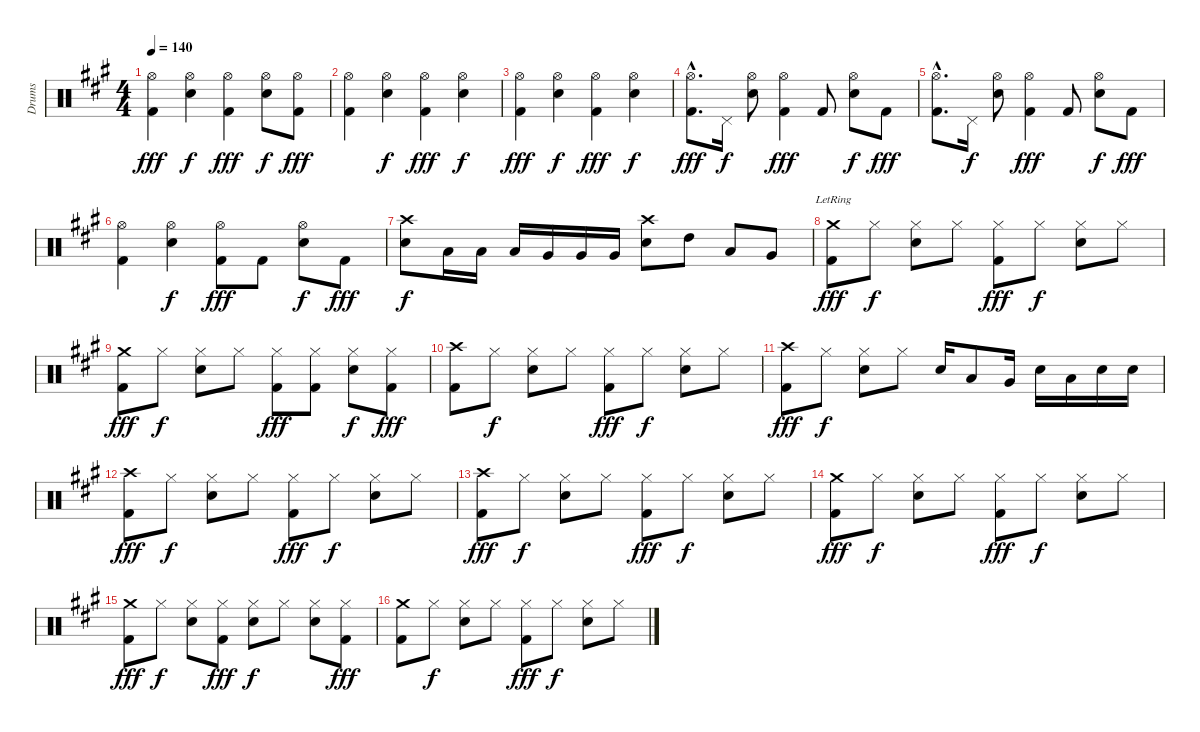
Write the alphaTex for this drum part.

\track ("Drums" "Drums") {instrument percussion}
\staff {score}
\articulation defaults
\ts (4 4)
\tempo 140
\clef neutral
\ks a
("Hi-Hat (open)" "Kick (hit) 2").4{dy fff} ("Hi-Hat (open)" "Electric Snare (hit)").4{dy f} ("Hi-Hat (open)" "Kick (hit) 2").4{dy fff} ("Hi-Hat (open)" "Electric Snare (hit)").8{dy f} ("Hi-Hat (open)" "Kick (hit) 2").8{dy fff} |
("Hi-Hat (open)" "Kick (hit) 2").4 ("Hi-Hat (open)" "Electric Snare (hit)").4{dy f} ("Hi-Hat (open)" "Kick (hit) 2").4{dy fff} ("Hi-Hat (open)" "Electric Snare (hit)").4{dy f} |
("Hi-Hat (open)" "Kick (hit) 2").4{dy fff} ("Hi-Hat (open)" "Electric Snare (hit)").4{dy f} ("Hi-Hat (open)" "Kick (hit) 2").4{dy fff} ("Hi-Hat (open)" "Electric Snare (hit)").4{dy f} |
("Hi-Hat (open)"{hac} "Kick (hit) 2"{hac}).8{d dy fff} "Pedal Hi-Hat (hit)".16{dy f} ("Hi-Hat (open)" "Electric Snare (hit)").8 ("Hi-Hat (open)" "Kick (hit) 2").4{dy fff} "Kick (hit) 2".8 ("Hi-Hat (open)" "Electric Snare (hit)").8{dy f} "Kick (hit) 2".8{dy fff} |
("Hi-Hat (open)"{hac} "Kick (hit) 2"{hac}).8{d} "Pedal Hi-Hat (hit)".16{dy f} ("Hi-Hat (open)" "Electric Snare (hit)").8 ("Hi-Hat (open)" "Kick (hit) 2").4{dy fff} "Kick (hit) 2".8 ("Hi-Hat (open)" "Electric Snare (hit)").8{dy f} "Kick (hit) 2".8{dy fff} |
("Hi-Hat (open)" "Kick (hit) 2").4 ("Hi-Hat (open)" "Electric Snare (hit)").4{dy f} ("Hi-Hat (open)" "Kick (hit) 2").8{dy fff} "Kick (hit) 2".8 ("Hi-Hat (open)" "Electric Snare (hit)").8{dy f} "Kick (hit) 2".8{dy fff} |
("Crash high (hit)" "Electric Snare (hit)").8{dy f} "Low Tom (hit)".16 "Low Tom (hit)".16 "Low Tom (hit)".16 "Very Low Tom (hit)".16 "Very Low Tom (hit)".16 "Very Low Tom (hit)".16 ("Crash high (hit)" "Electric Snare (hit)").8 "High Tom (hit)".8 "Low Tom (hit)".8 "Very Low Tom (hit)".8 |
("Crash medium (hit)"{lr} "Kick (hit) 2").8{dy fff} "Hi-Hat (closed)".8{dy f} ("Hi-Hat (closed)" "Electric Snare (hit)").8 "Hi-Hat (closed)".8 ("Hi-Hat (closed)" "Kick (hit) 2").8{dy fff} "Hi-Hat (closed)".8{dy f} ("Hi-Hat (closed)" "Electric Snare (hit)").8 "Hi-Hat (closed)".8 |
("Crash medium (hit)" "Kick (hit) 2").8{dy fff} "Hi-Hat (closed)".8{dy f} ("Hi-Hat (closed)" "Electric Snare (hit)").8 "Hi-Hat (closed)".8 ("Hi-Hat (closed)" "Kick (hit) 2").8{dy fff} ("Hi-Hat (closed)" "Kick (hit) 2").8 ("Hi-Hat (closed)" "Electric Snare (hit)").8{dy f} ("Hi-Hat (closed)" "Kick (hit) 2").8{dy fff} |
("Crash high (hit)" "Kick (hit) 2").8 "Hi-Hat (closed)".8{dy f} ("Hi-Hat (closed)" "Electric Snare (hit)").8 "Hi-Hat (closed)".8 ("Hi-Hat (closed)" "Kick (hit) 2").8{dy fff} "Hi-Hat (closed)".8{dy f} ("Hi-Hat (closed)" "Electric Snare (hit)").8 "Hi-Hat (closed)".8 |
("Crash high (hit)" "Kick (hit) 2").8{dy fff} "Hi-Hat (closed)".8{dy f} ("Hi-Hat (closed)" "Electric Snare (hit)").8 "Hi-Hat (closed)".8 "Electric Snare (hit)".16 "Low Tom (hit)".8 "Very Low Tom (hit)".16 "Electric Snare (hit)".16 "Low Floor Tom (hit)".16 "Electric Snare (hit)".16 "Electric Snare (hit)".16 |
("Crash high (hit)" "Kick (hit) 2").8{dy fff} "Hi-Hat (closed)".8{dy f} ("Hi-Hat (closed)" "Electric Snare (hit)").8 "Hi-Hat (closed)".8 ("Hi-Hat (closed)" "Kick (hit) 2").8{dy fff} "Hi-Hat (closed)".8{dy f} ("Hi-Hat (closed)" "Electric Snare (hit)").8 "Hi-Hat (closed)".8 |
("Crash high (hit)" "Kick (hit) 2").8{dy fff} "Hi-Hat (closed)".8{dy f} ("Hi-Hat (closed)" "Electric Snare (hit)").8 "Hi-Hat (closed)".8 ("Hi-Hat (closed)" "Kick (hit) 2").8{dy fff} "Hi-Hat (closed)".8{dy f} ("Hi-Hat (closed)" "Electric Snare (hit)").8 "Hi-Hat (closed)".8 |
("Crash medium (hit)" "Kick (hit) 2").8{dy fff} "Hi-Hat (closed)".8{dy f} ("Hi-Hat (closed)" "Electric Snare (hit)").8 "Hi-Hat (closed)".8 ("Hi-Hat (closed)" "Kick (hit) 2").8{dy fff} "Hi-Hat (closed)".8{dy f} ("Hi-Hat (closed)" "Electric Snare (hit)").8 "Hi-Hat (closed)".8 |
("Crash medium (hit)" "Kick (hit) 2").8{dy fff} "Hi-Hat (closed)".8{dy f} ("Hi-Hat (closed)" "Electric Snare (hit)").8 ("Hi-Hat (closed)" "Kick (hit) 2").8{dy fff} ("Hi-Hat (closed)" "Electric Snare (hit)").8{dy f} "Hi-Hat (closed)".8 ("Hi-Hat (closed)" "Electric Snare (hit)").8 ("Hi-Hat (closed)" "Kick (hit) 2").8{dy fff} |
("Crash medium (hit)" "Kick (hit) 2").8 "Hi-Hat (closed)".8{dy f} ("Hi-Hat (closed)" "Electric Snare (hit)").8 "Hi-Hat (closed)".8 ("Hi-Hat (closed)" "Kick (hit) 2").8{dy fff} "Hi-Hat (closed)".8{dy f} ("Hi-Hat (closed)" "Electric Snare (hit)").8 "Hi-Hat (closed)".8
